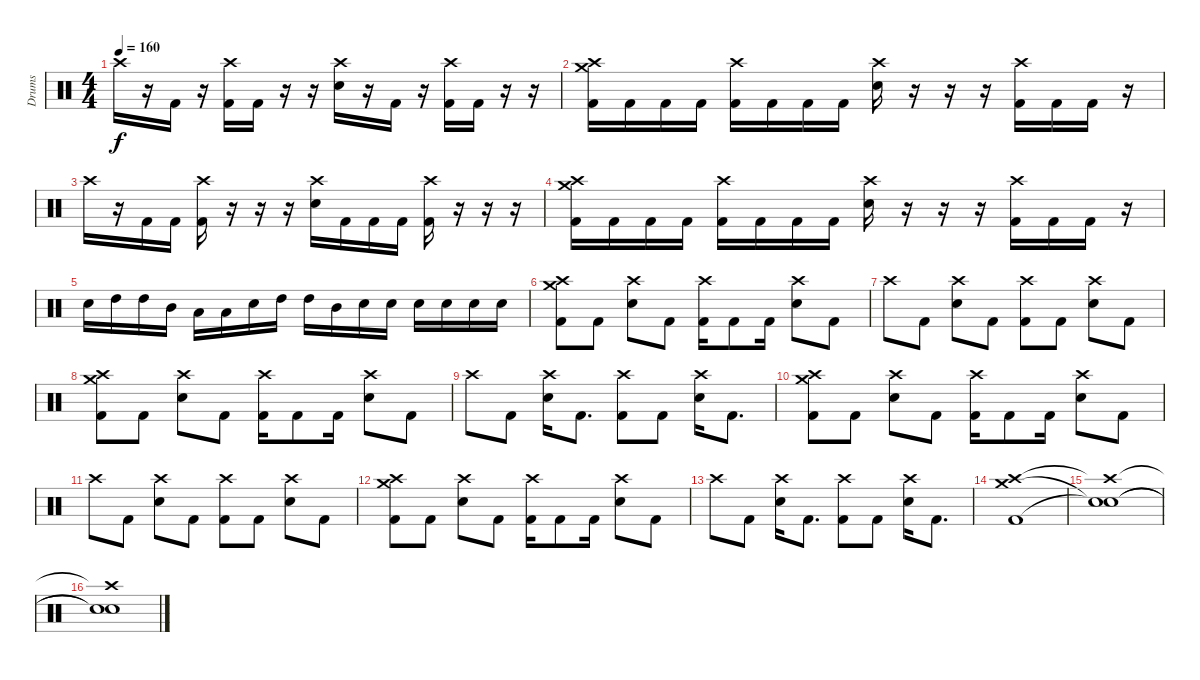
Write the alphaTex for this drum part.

\track ("Drums" "Drums") {instrument percussion}
\staff {score}
\articulation defaults
\ts (4 4)
\tempo 160
\clef neutral
\ks c "Crash high (hit)".16{dy f}
r.16 "Kick (hit) 2".16 r.16 ("Crash high (hit)" "Kick (hit) 2").16 "Kick (hit) 2".16 r.16 r.16 ("Crash high (hit)" "Electric Snare (hit)").16 r.16 "Kick (hit) 2".16 r.16 ("Crash high (hit)" "Kick (hit) 2").16 "Kick (hit) 2".16 r.16 r.16 |
("Crash high (hit)" "Crash medium (hit)" "Kick (hit) 2").16 "Kick (hit) 2".16 "Kick (hit) 2".16 "Kick (hit) 2".16 ("Crash high (hit)" "Kick (hit) 2").16 "Kick (hit) 2".16 "Kick (hit) 2".16 "Kick (hit) 2".16 ("Crash high (hit)" "Electric Snare (hit)").16 r.16 r.16 r.16 ("Crash high (hit)" "Kick (hit) 2").16 "Kick (hit) 2".16 "Kick (hit) 2".16 r.16 |
"Crash high (hit)".16 r.16 "Kick (hit) 2".16 "Kick (hit) 2".16 ("Crash high (hit)" "Kick (hit) 2").16 r.16 r.16 r.16 ("Crash high (hit)" "Electric Snare (hit)").16 "Kick (hit) 2".16 "Kick (hit) 2".16 "Kick (hit) 2".16 ("Crash high (hit)" "Kick (hit) 2").16 r.16 r.16 r.16 |
("Crash high (hit)" "Crash medium (hit)" "Kick (hit) 2").16 "Kick (hit) 2".16 "Kick (hit) 2".16 "Kick (hit) 2".16 ("Crash high (hit)" "Kick (hit) 2").16 "Kick (hit) 2".16 "Kick (hit) 2".16 "Kick (hit) 2".16 ("Crash high (hit)" "Electric Snare (hit)").16 r.16 r.16 r.16 ("Crash high (hit)" "Kick (hit) 2").16 "Kick (hit) 2".16 "Kick (hit) 2".16 r.16 |
"Electric Snare (hit)".16 "High Tom (hit)".16 "High Tom (hit)".16 "Mid Tom (hit)".16 "Low Floor Tom (hit)".16 "Low Floor Tom (hit)".16 "Electric Snare (hit)".16 "High Tom (hit)".16 "High Tom (hit)".16 "Mid Tom (hit)".16 "Electric Snare (hit)".16 "Electric Snare (hit)".16 "Electric Snare (hit)".16 "Electric Snare (hit)".16 "Electric Snare (hit)".16 "Electric Snare (hit)".16 |
("Crash medium (hit)" "Crash high (hit)" "Kick (hit) 2").8 "Kick (hit) 2".8 ("Crash high (hit)" "Electric Snare (hit)").8 "Kick (hit) 2".8 ("Crash high (hit)" "Kick (hit) 2").16 "Kick (hit) 2".8 "Kick (hit) 2".16 ("Crash high (hit)" "Electric Snare (hit)").8 "Kick (hit) 2".8 |
"Crash high (hit)".8 "Kick (hit) 2".8 ("Crash high (hit)" "Electric Snare (hit)").8 "Kick (hit) 2".8 ("Crash high (hit)" "Kick (hit) 2").8 "Kick (hit) 2".8 ("Crash high (hit)" "Electric Snare (hit)").8 "Kick (hit) 2".8 |
("Crash medium (hit)" "Crash high (hit)" "Kick (hit) 2").8 "Kick (hit) 2".8 ("Crash high (hit)" "Electric Snare (hit)").8 "Kick (hit) 2".8 ("Crash high (hit)" "Kick (hit) 2").16 "Kick (hit) 2".8 "Kick (hit) 2".16 ("Crash high (hit)" "Electric Snare (hit)").8 "Kick (hit) 2".8 |
"Crash high (hit)".8 "Kick (hit) 2".8 ("Crash high (hit)" "Electric Snare (hit)").16 "Kick (hit) 2".8{d} ("Crash high (hit)" "Kick (hit) 2").8 "Kick (hit) 2".8 ("Crash high (hit)" "Electric Snare (hit)").16 "Kick (hit) 2".8{d} |
("Crash medium (hit)" "Crash high (hit)" "Kick (hit) 2").8 "Kick (hit) 2".8 ("Crash high (hit)" "Electric Snare (hit)").8 "Kick (hit) 2".8 ("Crash high (hit)" "Kick (hit) 2").16 "Kick (hit) 2".8 "Kick (hit) 2".16 ("Crash high (hit)" "Electric Snare (hit)").8 "Kick (hit) 2".8 |
"Crash high (hit)".8 "Kick (hit) 2".8 ("Crash high (hit)" "Electric Snare (hit)").8 "Kick (hit) 2".8 ("Crash high (hit)" "Kick (hit) 2").8 "Kick (hit) 2".8 ("Crash high (hit)" "Electric Snare (hit)").8 "Kick (hit) 2".8 |
("Crash medium (hit)" "Crash high (hit)" "Kick (hit) 2").8 "Kick (hit) 2".8 ("Crash high (hit)" "Electric Snare (hit)").8 "Kick (hit) 2".8 ("Crash high (hit)" "Kick (hit) 2").16 "Kick (hit) 2".8 "Kick (hit) 2".16 ("Crash high (hit)" "Electric Snare (hit)").8 "Kick (hit) 2".8 |
"Crash high (hit)".8 "Kick (hit) 2".8 ("Crash high (hit)" "Electric Snare (hit)").16 "Kick (hit) 2".8{d} ("Crash high (hit)" "Kick (hit) 2").8 "Kick (hit) 2".8 ("Crash high (hit)" "Electric Snare (hit)").16 "Kick (hit) 2".8{d} |
("Crash high (hit)" "Crash medium (hit)" "Kick (hit) 2").1 |
("Crash high (hit)"{t} "Snare (hit)"{t} "Snare (hit)"{t}).1 |
("Crash high (hit)"{t} "Snare (hit)"{t} "Snare (hit)"{t}).1
